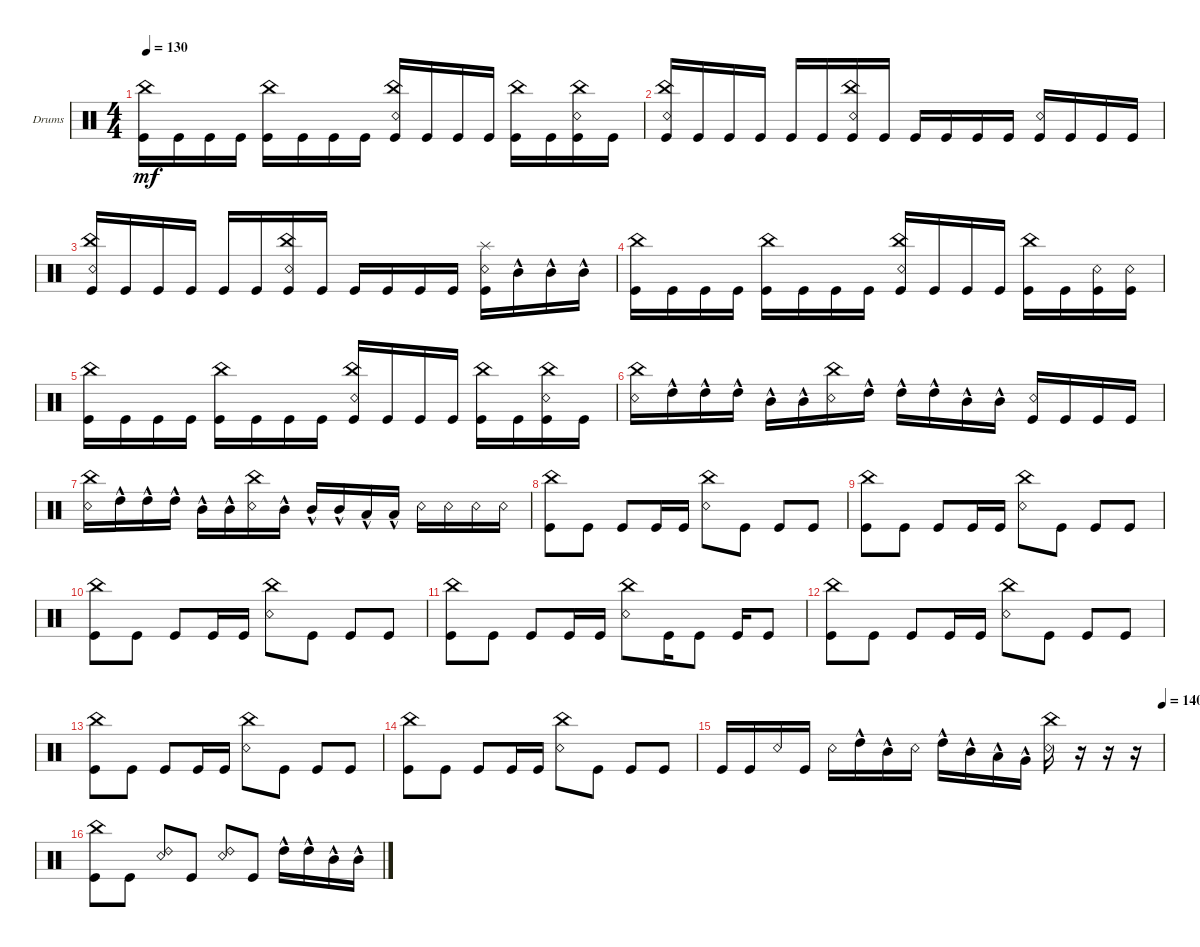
\defaultSystemsLayout 4
\bracketExtendMode groupsimilarinstruments
\firstSystemTrackNameOrientation horizontal
\otherSystemsTrackNameOrientation horizontal
\track ("Drumkit" "Drums") {instrument percussion}
\staff {score}
\articulation defaults
\ts (4 4)
\tempo 130
\clef neutral
\ks c
("Kick (hit)" "China (hit)").16{dy mf} "Kick (hit)".16 "Kick (hit)".16 "Kick (hit)".16 ("Kick (hit)" "China (hit)").16 "Kick (hit)".16 "Kick (hit)".16 "Kick (hit)".16 ("Kick (hit)" "Snare (rim shot)" "China (hit)").16 "Kick (hit)".16 "Kick (hit)".16 "Kick (hit)".16 ("Kick (hit)" "China (hit)").16 "Kick (hit)".16 ("Snare (rim shot)" "Kick (hit)" "China (hit)").16 "Kick (hit)".16 |
("Kick (hit)" "Snare (rim shot)" "China (hit)").16 "Kick (hit)".16 "Kick (hit)".16 "Kick (hit)".16 "Kick (hit)".16 "Kick (hit)".16 ("Kick (hit)" "Snare (rim shot)" "China (hit)").16 "Kick (hit)".16 "Kick (hit)".16 "Kick (hit)".16 "Kick (hit)".16 "Kick (hit)".16 ("Kick (hit)" "Snare (rim shot)").16 "Kick (hit)".16 "Kick (hit)".16 "Kick (hit)".16 |
("Kick (hit)" "Snare (rim shot)" "China (hit)").16 "Kick (hit)".16 "Kick (hit)".16 "Kick (hit)".16 "Kick (hit)".16 "Kick (hit)".16 ("Kick (hit)" "Snare (rim shot)" "China (hit)").16 "Kick (hit)".16 "Kick (hit)".16 "Kick (hit)".16 "Kick (hit)".16 "Kick (hit)".16 ("Kick (hit)" "Snare (rim shot)" "Splash (hit)").16 "Mid Tom (hit)"{hac}.16 "Mid Tom (hit)"{hac}.16 "Mid Tom (hit)"{hac}.16 |
("Kick (hit)" "China (hit)").16 "Kick (hit)".16 "Kick (hit)".16 "Kick (hit)".16 ("Kick (hit)" "China (hit)").16 "Kick (hit)".16 "Kick (hit)".16 "Kick (hit)".16 ("Kick (hit)" "Snare (rim shot)" "China (hit)").16 "Kick (hit)".16 "Kick (hit)".16 "Kick (hit)".16 ("Kick (hit)" "China (hit)").16 "Kick (hit)".16 ("Snare (rim shot)" "Kick (hit)").16 ("Kick (hit)" "Snare (rim shot)").16 |
("Kick (hit)" "China (hit)").16 "Kick (hit)".16 "Kick (hit)".16 "Kick (hit)".16 ("Kick (hit)" "China (hit)").16 "Kick (hit)".16 "Kick (hit)".16 "Kick (hit)".16 ("Kick (hit)" "Snare (rim shot)" "China (hit)").16 "Kick (hit)".16 "Kick (hit)".16 "Kick (hit)".16 ("Kick (hit)" "China (hit)").16 "Kick (hit)".16 ("Snare (rim shot)" "Kick (hit)" "China (hit)").16 "Kick (hit)".16 |
("Snare (rim shot)" "China (hit)").16 "High Tom (hit)"{hac}.16 "High Tom (hit)"{hac}.16 "High Tom (hit)"{hac}.16 "Mid Tom (hit)"{hac}.16 "Mid Tom (hit)"{hac}.16 ("Snare (rim shot)" "China (hit)").16 "High Tom (hit)"{hac}.16 "High Tom (hit)"{hac}.16 "High Tom (hit)"{hac}.16 "Mid Tom (hit)"{hac}.16 "Mid Tom (hit)"{hac}.16 ("Kick (hit)" "Snare (rim shot)").16 "Kick (hit)".16 "Kick (hit)".16 "Kick (hit)".16 |
("Snare (rim shot)" "China (hit)").16 "High Tom (hit)"{hac}.16 "High Tom (hit)"{hac}.16 "High Tom (hit)"{hac}.16 "Mid Tom (hit)"{hac}.16 "Mid Tom (hit)"{hac}.16 ("Snare (rim shot)" "China (hit)").16 "Mid Tom (hit)"{hac}.16 "Mid Tom (hit)"{hac}.16 "Mid Tom (hit)"{hac}.16 "Low Tom (hit)"{hac}.16 "Low Tom (hit)"{hac}.16 "Snare (rim shot)".16 "Snare (rim shot)".16 "Snare (rim shot)".16 "Snare (rim shot)".16 |
("China (hit)" "Kick (hit)").8 "Kick (hit)".8 "Kick (hit)".8 "Kick (hit)".16 "Kick (hit)".16 ("Snare (rim shot)" "China (hit)").8 "Kick (hit)".8 "Kick (hit)".8 "Kick (hit)".8 |
("China (hit)" "Kick (hit)").8 "Kick (hit)".8 "Kick (hit)".8 "Kick (hit)".16 "Kick (hit)".16 ("Snare (rim shot)" "China (hit)").8 "Kick (hit)".8 "Kick (hit)".8 "Kick (hit)".8 |
("China (hit)" "Kick (hit)").8 "Kick (hit)".8 "Kick (hit)".8 "Kick (hit)".16 "Kick (hit)".16 ("Snare (rim shot)" "China (hit)").8 "Kick (hit)".8 "Kick (hit)".8 "Kick (hit)".8 |
("China (hit)" "Kick (hit)").8 "Kick (hit)".8 "Kick (hit)".8 "Kick (hit)".16 "Kick (hit)".16 ("Snare (rim shot)" "China (hit)").8 "Kick (hit)".16 "Kick (hit)".8 "Kick (hit)".16 "Kick (hit)".8 |
("China (hit)" "Kick (hit)").8 "Kick (hit)".8 "Kick (hit)".8 "Kick (hit)".16 "Kick (hit)".16 ("Snare (rim shot)" "China (hit)").8 "Kick (hit)".8 "Kick (hit)".8 "Kick (hit)".8 |
("China (hit)" "Kick (hit)").8 "Kick (hit)".8 "Kick (hit)".8 "Kick (hit)".16 "Kick (hit)".16 ("Snare (rim shot)" "China (hit)").8 "Kick (hit)".8 "Kick (hit)".8 "Kick (hit)".8 |
("China (hit)" "Kick (hit)").8 "Kick (hit)".8 "Kick (hit)".8 "Kick (hit)".16 "Kick (hit)".16 ("Snare (rim shot)" "China (hit)").8 "Kick (hit)".8 "Kick (hit)".8 "Kick (hit)".8 |
\tempo (140 1)
"Kick (hit)".16 "Kick (hit)".16 "Snare (rim shot)".16 "Kick (hit)".16 "Snare (rim shot)".16 "High Tom (hit)"{hac}.16 "Mid Tom (hit)"{hac}.16 "Snare (rim shot)".16 "High Tom (hit)"{hac}.16 "Mid Tom (hit)"{hac}.16 "Low Tom (hit)"{hac}.16 "Very Low Tom (hit)"{hac}.16 ("China (hit)" "Snare (rim shot)").16 r.16 r.16 r.16 |
("China (hit)" "Kick (hit)").8 "Kick (hit)".8 ("Snare (rim shot)" "Ride (bell) 2").8 "Kick (hit)".8 ("Snare (rim shot)" "Ride (bell) 2").8 "Kick (hit)".8 "High Tom (hit)"{hac}.16 "High Tom (hit)"{hac}.16 "Mid Tom (hit)"{hac}.16 "Mid Tom (hit)"{hac}.16
